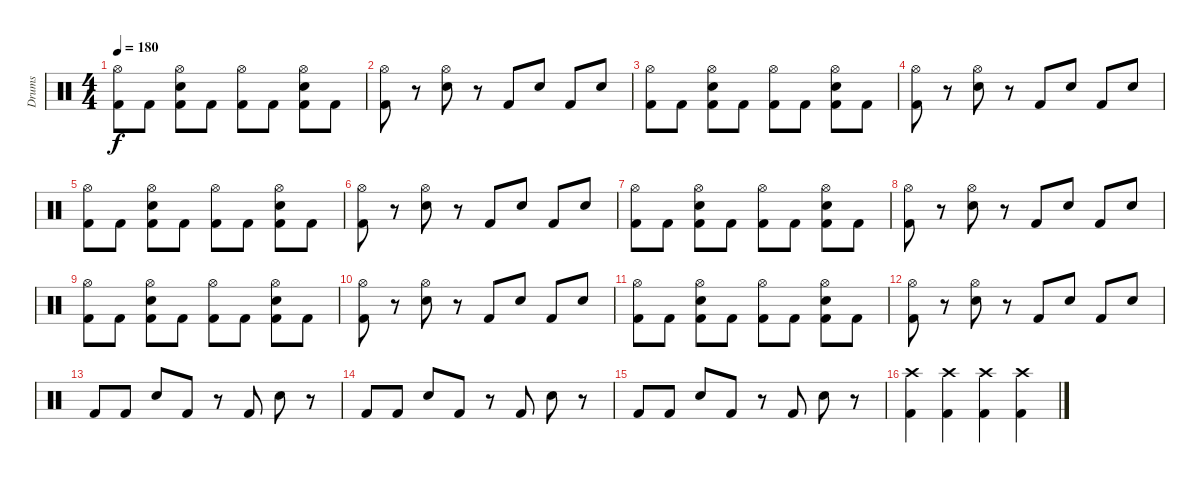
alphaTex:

\track ("Drums" "Drums") {instrument percussion}
\staff {score}
\articulation defaults
\ts (4 4)
\tempo 180
\clef neutral
\ks c
("Hi-Hat (open)" "Kick (hit) 2").8{dy f} "Kick (hit) 2".8 ("Hi-Hat (open)" "Electric Snare (hit)" "Kick (hit) 2").8 "Kick (hit) 2".8 ("Hi-Hat (open)" "Kick (hit) 2").8 "Kick (hit) 2".8 ("Hi-Hat (open)" "Electric Snare (hit)" "Kick (hit) 2").8 "Kick (hit) 2".8 |
("Hi-Hat (open)" "Kick (hit) 2").8 r.8 ("Hi-Hat (open)" "Electric Snare (hit)").8 r.8 "Kick (hit) 2".8 "Electric Snare (hit)".8 "Kick (hit) 2".8 "Electric Snare (hit)".8 |
("Hi-Hat (open)" "Kick (hit) 2").8 "Kick (hit) 2".8 ("Hi-Hat (open)" "Electric Snare (hit)" "Kick (hit) 2").8 "Kick (hit) 2".8 ("Hi-Hat (open)" "Kick (hit) 2").8 "Kick (hit) 2".8 ("Hi-Hat (open)" "Electric Snare (hit)" "Kick (hit) 2").8 "Kick (hit) 2".8 |
("Hi-Hat (open)" "Kick (hit) 2").8 r.8 ("Hi-Hat (open)" "Electric Snare (hit)").8 r.8 "Kick (hit) 2".8 "Electric Snare (hit)".8 "Kick (hit) 2".8 "Electric Snare (hit)".8 |
("Hi-Hat (open)" "Kick (hit) 2").8 "Kick (hit) 2".8 ("Hi-Hat (open)" "Electric Snare (hit)" "Kick (hit) 2").8 "Kick (hit) 2".8 ("Hi-Hat (open)" "Kick (hit) 2").8 "Kick (hit) 2".8 ("Hi-Hat (open)" "Electric Snare (hit)" "Kick (hit) 2").8 "Kick (hit) 2".8 |
("Hi-Hat (open)" "Kick (hit) 2").8 r.8 ("Hi-Hat (open)" "Electric Snare (hit)").8 r.8 "Kick (hit) 2".8 "Electric Snare (hit)".8 "Kick (hit) 2".8 "Electric Snare (hit)".8 |
("Hi-Hat (open)" "Kick (hit) 2").8 "Kick (hit) 2".8 ("Hi-Hat (open)" "Electric Snare (hit)" "Kick (hit) 2").8 "Kick (hit) 2".8 ("Hi-Hat (open)" "Kick (hit) 2").8 "Kick (hit) 2".8 ("Hi-Hat (open)" "Electric Snare (hit)" "Kick (hit) 2").8 "Kick (hit) 2".8 |
("Hi-Hat (open)" "Kick (hit) 2").8 r.8 ("Hi-Hat (open)" "Electric Snare (hit)").8 r.8 "Kick (hit) 2".8 "Electric Snare (hit)".8 "Kick (hit) 2".8 "Electric Snare (hit)".8 |
("Hi-Hat (open)" "Kick (hit) 2").8 "Kick (hit) 2".8 ("Hi-Hat (open)" "Electric Snare (hit)" "Kick (hit) 2").8 "Kick (hit) 2".8 ("Hi-Hat (open)" "Kick (hit) 2").8 "Kick (hit) 2".8 ("Hi-Hat (open)" "Electric Snare (hit)" "Kick (hit) 2").8 "Kick (hit) 2".8 |
("Hi-Hat (open)" "Kick (hit) 2").8 r.8 ("Hi-Hat (open)" "Electric Snare (hit)").8 r.8 "Kick (hit) 2".8 "Electric Snare (hit)".8 "Kick (hit) 2".8 "Electric Snare (hit)".8 |
("Hi-Hat (open)" "Kick (hit) 2").8 "Kick (hit) 2".8 ("Hi-Hat (open)" "Electric Snare (hit)" "Kick (hit) 2").8 "Kick (hit) 2".8 ("Hi-Hat (open)" "Kick (hit) 2").8 "Kick (hit) 2".8 ("Hi-Hat (open)" "Electric Snare (hit)" "Kick (hit) 2").8 "Kick (hit) 2".8 |
("Hi-Hat (open)" "Kick (hit) 2").8 r.8 ("Hi-Hat (open)" "Electric Snare (hit)").8 r.8 "Kick (hit) 2".8 "Electric Snare (hit)".8 "Kick (hit) 2".8 "Electric Snare (hit)".8 |
"Kick (hit) 2".8 "Kick (hit) 2".8 "Electric Snare (hit)".8 "Kick (hit) 2".8 r.8 "Kick (hit) 2".8 "Electric Snare (hit)".8 r.8 |
"Kick (hit) 2".8 "Kick (hit) 2".8 "Electric Snare (hit)".8 "Kick (hit) 2".8 r.8 "Kick (hit) 2".8 "Electric Snare (hit)".8 r.8 |
"Kick (hit) 2".8 "Kick (hit) 2".8 "Electric Snare (hit)".8 "Kick (hit) 2".8 r.8 "Kick (hit) 2".8 "Electric Snare (hit)".8 r.8 |
("Crash high (hit)" "Kick (hit) 2").4 ("Crash high (hit)" "Kick (hit) 2").4 ("Crash high (hit)" "Kick (hit) 2").4 ("Crash high (hit)" "Kick (hit) 2").4
